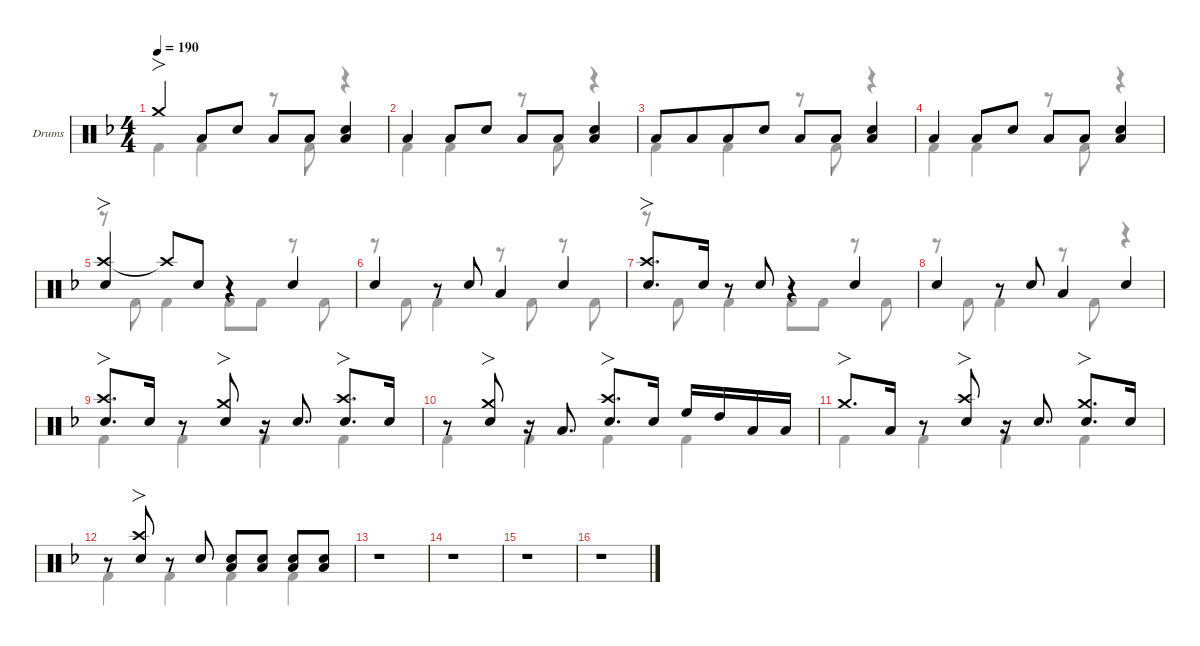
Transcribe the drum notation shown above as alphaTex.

\defaultSystemsLayout 4
\hideDynamics
\bracketExtendMode nobrackets
\firstSystemTrackNameOrientation horizontal
\track ("Drums" "Drums") {defaultSystemsLayout 4 instrument percussion}
\staff {score}
\articulation defaults
\voice
\ts (4 4)
\tempo 190
\clef neutral
\scale
0.267605
\ks dminor "Crash medium (hit)"{acc forcenatural}.4{fo dy f} "Low Tom (hit)"{acc forcenatural}.8 "Snare (hit) 2"{acc forcenatural}.8 "Low Tom (hit)"{acc forcenatural}.8 "Low Tom (hit)"{acc forcenatural}.8
("Low Tom (hit)"{acc forcenatural} "Snare (hit) 2"{acc forcenatural}).4 |
\scale
0.244132 "Low Tom (hit)"{acc forcenatural}.4{beam merge} "Low Tom (hit)"{acc forcenatural}.8{beam merge} "Snare (hit) 2"{acc forcenatural}.8 "Low Tom (hit)"{acc forcenatural}.8 "Low Tom (hit)"{acc forcenatural}.8 ("Low Tom (hit)"{acc forcenatural} "Snare (hit) 2"{acc forcenatural}).4 |
\scale
0.244132 "Low Tom (hit)"{acc forcenatural}.8{beam merge} "Low Tom (hit)"{acc forcenatural}.8{beam merge} "Low Tom (hit)"{acc forcenatural}.8{beam merge} "Snare (hit) 2"{acc forcenatural}.8 "Low Tom (hit)"{acc forcenatural}.8 "Low Tom (hit)"{acc forcenatural}.8 ("Low Tom (hit)"{acc forcenatural} "Snare (hit) 2"{acc forcenatural}).4 |
\scale
0.244132 "Low Tom (hit)"{acc forcenatural}.4 "Low Tom (hit)"{acc forcenatural}.8 "Snare (hit) 2"{acc forcenatural}.8 "Low Tom (hit)"{acc forcenatural}.8 "Low Tom (hit)"{acc forcenatural}.8 ("Low Tom (hit)"{acc forcenatural} "Snare (hit) 2"{acc forcenatural}).4 |
\scale
0.267605 ("Crash high (hit)"{acc forcenatural} "Snare (hit) 2"{acc forcenatural}).4{fo} "Crash high (hit)"{t acc forcenatural}.8 "Snare (hit) 2"{acc forcenatural}.8 r.4 "Snare (hit) 2"{acc forcenatural}.4 |
\scale
0.244132 "Snare (hit) 2"{acc forcenatural}.4 r.8 "Snare (hit) 2"{acc forcenatural}.8 "Low Tom (hit)"{acc forcenatural}.4 "Snare (hit) 2"{acc forcenatural}.4 |
\scale
0.244132 ("Snare (hit) 2"{acc forcenatural} "Crash high (hit)"{acc forcenatural}).8{fo d} "Snare (hit) 2"{acc forcenatural}.16{beam split} r.8{beam split} "Snare (hit) 2"{acc forcenatural}.8 r.4 "Snare (hit) 2"{acc forcenatural}.4 |
\scale
0.244132 "Snare (hit) 2"{acc forcenatural}.4 r.8 "Snare (hit) 2"{acc forcenatural}.8 "Low Tom (hit)"{acc forcenatural}.4 "Snare (hit) 2"{acc forcenatural}.4 |
\scale
0.267605 ("Snare (hit) 2"{acc forcenatural} "Crash high (hit)"{acc forcenatural}).8{fo d} "Snare (hit) 2"{acc forcenatural}.16{beam split} r.8{beam split} ("Snare (hit) 2"{acc forcenatural} "Crash medium (hit)"{acc forcenatural}).8{fo} r.16 "Snare (hit) 2"{acc forcenatural}.8{d beam split} ("Snare (hit) 2"{acc forcenatural} "Crash high (hit)"{acc forcenatural}).8{fo d} "Snare (hit) 2"{acc forcenatural}.16 |
\scale
0.244132 r.8 ("Snare (hit) 2"{acc forcenatural} "Crash medium (hit)"{acc forcenatural}).8{fo beam split} r.16 "Low Tom (hit)"{acc forcenatural}.8{d beam split} ("Snare (hit) 2"{acc forcenatural} "Crash high (hit)"{acc forcenatural}).8{fo d} "Snare (hit) 2"{acc forcenatural}.16{beam split} "High Floor Tom (hit)"{acc forcenatural}.16 "High Tom (hit)"{acc forcenatural}.16 "Low Tom (hit)"{acc forcenatural}.16 "Low Tom (hit)"{acc forcenatural}.16 |
\scale
0.244132 "Crash medium (hit)"{acc forcenatural}.8{fo d} "Low Tom (hit)"{acc forcenatural}.16{beam split} r.8{beam split} ("Snare (hit) 2"{acc forcenatural} "Crash high (hit)"{acc forcenatural}).8{fo} r.16 "Snare (hit) 2"{acc forcenatural}.8{d beam split} ("Snare (hit) 2"{acc forcenatural} "Crash medium (hit)"{acc forcenatural}).8{fo d} "Snare (hit) 2"{acc forcenatural}.16 |
\scale
0.244132 r.8 ("Snare (hit) 2"{acc forcenatural} "Crash high (hit)"{acc forcenatural}).8{fo} r.8 "Snare (hit) 2"{acc forcenatural}.8 ("Snare (hit) 2"{acc forcenatural} "Low Tom (hit)"{acc forcenatural}).8 ("Snare (hit) 2"{acc forcenatural} "Low Tom (hit)"{acc forcenatural}).8 ("Snare (hit) 2"{acc forcenatural} "Low Tom (hit)"{acc forcenatural}).8 ("Snare (hit) 2"{acc forcenatural} "Low Tom (hit)"{acc forcenatural}).8 |
\scale
0.267605 r.1 |
\scale
0.244132 r.1 |
\scale
0.244132 r.1 |
\scale
0.244132 r.1
\voice
\clef neutral
\ottava regular
\simile none
\scale
0.267605
\ks dminor "Kick (hit) 2"{acc forcenatural}.4{dy f} "Kick (hit) 2"{acc forcenatural}.4
r.8 "Kick (hit) 2"{acc forcenatural}.8 r.4 |
\scale
0.244132 "Kick (hit) 2"{acc forcenatural}.4 "Kick (hit) 2"{acc forcenatural}.4 r.8 "Kick (hit) 2"{acc forcenatural}.8 r.4 |
\scale
0.244132 "Kick (hit) 2"{acc forcenatural}.4 "Kick (hit) 2"{acc forcenatural}.4 r.8 "Kick (hit) 2"{acc forcenatural}.8{beam split} r.4{beam split} |
\scale
0.244132 "Kick (hit) 2"{acc forcenatural}.4 "Kick (hit) 2"{acc forcenatural}.4 r.8 "Kick (hit) 2"{acc forcenatural}.8 r.4 |
\scale
0.267605 r.8 "Kick (hit) 2"{acc forcenatural}.8 "Kick (hit) 2"{acc forcenatural}.4 "Kick (hit) 2"{acc forcenatural}.8 "Kick (hit) 2"{acc forcenatural}.8 r.8 "Kick (hit) 2"{acc forcenatural}.8 |
\scale
0.244132 r.8 "Kick (hit) 2"{acc forcenatural}.8 "Kick (hit) 2"{acc forcenatural}.4 r.8 "Kick (hit) 2"{acc forcenatural}.8 r.8 "Kick (hit) 2"{acc forcenatural}.8 |
\scale
0.244132 r.8 "Kick (hit) 2"{acc forcenatural}.8 "Kick (hit) 2"{acc forcenatural}.4 "Kick (hit) 2"{acc forcenatural}.8 "Kick (hit) 2"{acc forcenatural}.8 r.8 "Kick (hit) 2"{acc forcenatural}.8 |
\scale
0.244132 r.8 "Kick (hit) 2"{acc forcenatural}.8 "Kick (hit) 2"{acc forcenatural}.4 r.8 "Kick (hit) 2"{acc forcenatural}.8 r.4 |
\scale
0.267605 "Kick (hit) 2"{acc forcenatural}.4 "Kick (hit) 2"{acc forcenatural}.4 "Kick (hit) 2"{acc forcenatural}.4 "Kick (hit) 2"{acc forcenatural}.4 |
\scale
0.244132 "Kick (hit) 2"{acc forcenatural}.4 "Kick (hit) 2"{acc forcenatural}.4 "Kick (hit) 2"{acc forcenatural}.4 "Kick (hit) 2"{acc forcenatural}.4 |
\scale
0.244132 "Kick (hit) 2"{acc forcenatural}.4 "Kick (hit) 2"{acc forcenatural}.4 "Kick (hit) 2"{acc forcenatural}.4 "Kick (hit) 2"{acc forcenatural}.4 |
\scale
0.244132 "Kick (hit) 2"{acc forcenatural}.4 "Kick (hit) 2"{acc forcenatural}.4 "Kick (hit) 2"{acc forcenatural}.4 "Kick (hit) 2"{acc forcenatural}.4 |
\scale
0.267605 r.1 |
\scale
0.244132 r.1 |
\scale
0.244132 r.1 |
\scale
0.244132 r.1
